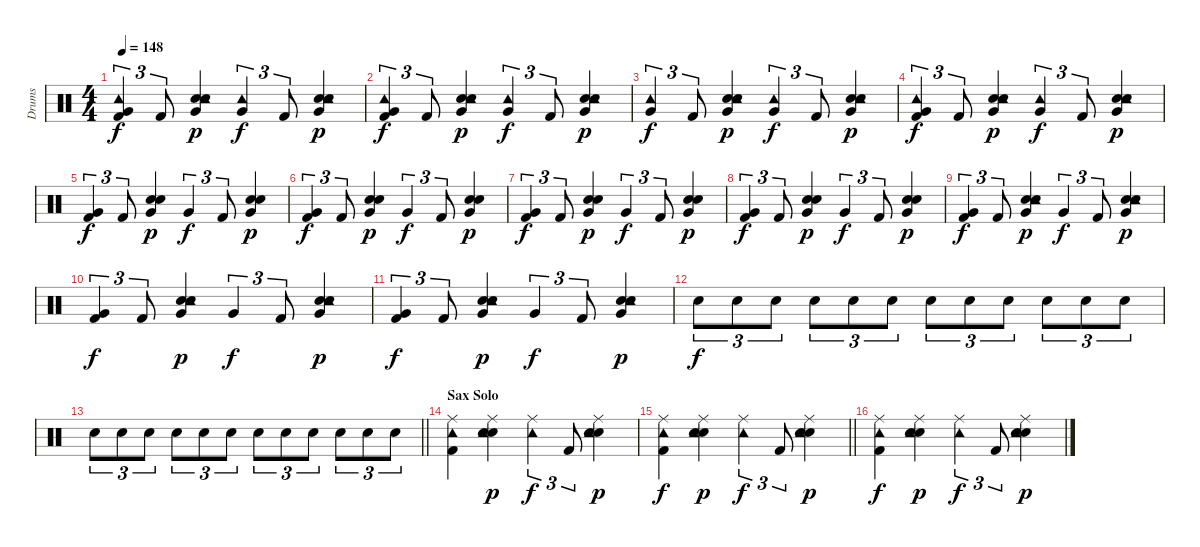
\track ("Drums" "Drums") {instrument percussion}
\staff {score}
\articulation defaults
\ts (4 4)
\tempo 148
\clef neutral
\ks c
("Very Low Tom (hit)" "Tambourine (hit)" "Kick (hit) 2").4{tu (3 2) dy f} "Kick (hit) 2".8{tu (3 2)} ("Very Low Tom (hit)" "Hand Clap (hit)" "Tambourine (hit)" "Electric Snare (hit)").4{dy p} ("Very Low Tom (hit)" "Tambourine (hit)").4{tu (3 2) dy f} "Kick (hit) 2".8{tu (3 2)} ("Very Low Tom (hit)" "Hand Clap (hit)" "Tambourine (hit)" "Electric Snare (hit)").4{dy p} |
("Very Low Tom (hit)" "Tambourine (hit)" "Kick (hit) 2").4{tu (3 2) dy f} "Kick (hit) 2".8{tu (3 2)} ("Very Low Tom (hit)" "Hand Clap (hit)" "Tambourine (hit)" "Electric Snare (hit)").4{dy p} ("Very Low Tom (hit)" "Tambourine (hit)").4{tu (3 2) dy f} "Kick (hit) 2".8{tu (3 2)} ("Very Low Tom (hit)" "Hand Clap (hit)" "Tambourine (hit)" "Electric Snare (hit)").4{dy p} |
("Very Low Tom (hit)" "Tambourine (hit)").4{tu (3 2) dy f} "Kick (hit) 2".8{tu (3 2)} ("Very Low Tom (hit)" "Hand Clap (hit)" "Tambourine (hit)" "Electric Snare (hit)").4{dy p} ("Very Low Tom (hit)" "Tambourine (hit)").4{tu (3 2) dy f} "Kick (hit) 2".8{tu (3 2)} ("Very Low Tom (hit)" "Hand Clap (hit)" "Tambourine (hit)" "Electric Snare (hit)").4{dy p} |
("Very Low Tom (hit)" "Tambourine (hit)" "Kick (hit) 2").4{tu (3 2) dy f} "Kick (hit) 2".8{tu (3 2)} ("Very Low Tom (hit)" "Hand Clap (hit)" "Tambourine (hit)" "Electric Snare (hit)").4{dy p} ("Very Low Tom (hit)" "Tambourine (hit)").4{tu (3 2) dy f} "Kick (hit) 2".8{tu (3 2)} ("Very Low Tom (hit)" "Hand Clap (hit)" "Tambourine (hit)" "Electric Snare (hit)").4{dy p} |
("Very Low Tom (hit)" "Kick (hit) 2").4{tu (3 2) dy f} "Kick (hit) 2".8{tu (3 2)} ("Very Low Tom (hit)" "Hand Clap (hit)" "Electric Snare (hit)").4{dy p} "Very Low Tom (hit)".4{tu (3 2) dy f} "Kick (hit) 2".8{tu (3 2)} ("Very Low Tom (hit)" "Hand Clap (hit)" "Electric Snare (hit)").4{dy p} |
("Very Low Tom (hit)" "Kick (hit) 2").4{tu (3 2) dy f} "Kick (hit) 2".8{tu (3 2)} ("Very Low Tom (hit)" "Hand Clap (hit)" "Electric Snare (hit)").4{dy p} "Very Low Tom (hit)".4{tu (3 2) dy f} "Kick (hit) 2".8{tu (3 2)} ("Very Low Tom (hit)" "Hand Clap (hit)" "Electric Snare (hit)").4{dy p} |
("Very Low Tom (hit)" "Kick (hit) 2").4{tu (3 2) dy f} "Kick (hit) 2".8{tu (3 2)} ("Very Low Tom (hit)" "Hand Clap (hit)" "Electric Snare (hit)").4{dy p} "Very Low Tom (hit)".4{tu (3 2) dy f} "Kick (hit) 2".8{tu (3 2)} ("Very Low Tom (hit)" "Hand Clap (hit)" "Electric Snare (hit)").4{dy p} |
("Very Low Tom (hit)" "Kick (hit) 2").4{tu (3 2) dy f} "Kick (hit) 2".8{tu (3 2)} ("Very Low Tom (hit)" "Hand Clap (hit)" "Electric Snare (hit)").4{dy p} "Very Low Tom (hit)".4{tu (3 2) dy f} "Kick (hit) 2".8{tu (3 2)} ("Very Low Tom (hit)" "Hand Clap (hit)" "Electric Snare (hit)").4{dy p} |
("Very Low Tom (hit)" "Kick (hit) 2").4{tu (3 2) dy f} "Kick (hit) 2".8{tu (3 2)} ("Very Low Tom (hit)" "Hand Clap (hit)" "Tambourine (hit)" "Electric Snare (hit)").4{dy p} "Very Low Tom (hit)".4{tu (3 2) dy f} "Kick (hit) 2".8{tu (3 2)} ("Very Low Tom (hit)" "Hand Clap (hit)" "Tambourine (hit)" "Electric Snare (hit)").4{dy p} |
("Very Low Tom (hit)" "Kick (hit) 2").4{tu (3 2) dy f} "Kick (hit) 2".8{tu (3 2)} ("Very Low Tom (hit)" "Hand Clap (hit)" "Tambourine (hit)" "Electric Snare (hit)").4{dy p} "Very Low Tom (hit)".4{tu (3 2) dy f} "Kick (hit) 2".8{tu (3 2)} ("Very Low Tom (hit)" "Hand Clap (hit)" "Tambourine (hit)" "Electric Snare (hit)").4{dy p} |
("Very Low Tom (hit)" "Kick (hit) 2").4{tu (3 2) dy f} "Kick (hit) 2".8{tu (3 2)} ("Very Low Tom (hit)" "Hand Clap (hit)" "Tambourine (hit)" "Electric Snare (hit)").4{dy p} "Very Low Tom (hit)".4{tu (3 2) dy f} "Kick (hit) 2".8{tu (3 2)} ("Very Low Tom (hit)" "Hand Clap (hit)" "Tambourine (hit)" "Electric Snare (hit)").4{dy p} |
"Snare (hit) 2".8{tu (3 2) dy f} "Snare (hit) 2".8{tu (3 2)} "Snare (hit) 2".8{tu (3 2)} "Snare (hit) 2".8{tu (3 2)} "Snare (hit) 2".8{tu (3 2)} "Snare (hit) 2".8{tu (3 2)} "Snare (hit) 2".8{tu (3 2)} "Snare (hit) 2".8{tu (3 2)} "Snare (hit) 2".8{tu (3 2)} "Snare (hit) 2".8{tu (3 2)} "Snare (hit) 2".8{tu (3 2)} "Snare (hit) 2".8{tu (3 2)} |
\barLineRight lightlight "Snare (hit) 2".8{tu (3 2)} "Snare (hit) 2".8{tu (3 2)} "Snare (hit) 2".8{tu (3 2)} "Snare (hit) 2".8{tu (3 2)} "Snare (hit) 2".8{tu (3 2)} "Snare (hit) 2".8{tu (3 2)} "Snare (hit) 2".8{tu (3 2)} "Snare (hit) 2".8{tu (3 2)} "Snare (hit) 2".8{tu (3 2)} "Snare (hit) 2".8{tu (3 2)} "Snare (hit) 2".8{tu (3 2)} "Snare (hit) 2".8{tu (3 2)}
|
\section ("" "Sax Solo")
("Ride (middle)" "Tambourine (hit)" "Kick (hit) 2").4 ("Ride (middle)" "Hand Clap (hit)" "Tambourine (hit)" "Electric Snare (hit)").4{dy p} ("Ride (middle)" "Tambourine (hit)").4{tu (3 2) dy f} "Kick (hit) 2".8{tu (3 2)} ("Ride (middle)" "Hand Clap (hit)" "Tambourine (hit)" "Electric Snare (hit)").4{dy p} |
\barLineRight lightlight
("Ride (middle)" "Tambourine (hit)" "Kick (hit) 2").4{dy f} ("Ride (middle)" "Hand Clap (hit)" "Tambourine (hit)" "Electric Snare (hit)").4{dy p} ("Ride (middle)" "Tambourine (hit)").4{tu (3 2) dy f} "Kick (hit) 2".8{tu (3 2)} ("Ride (middle)" "Hand Clap (hit)" "Tambourine (hit)" "Electric Snare (hit)").4{dy p} |
("Ride (middle)" "Tambourine (hit)" "Kick (hit) 2").4{dy f} ("Ride (middle)" "Hand Clap (hit)" "Tambourine (hit)" "Electric Snare (hit)").4{dy p} ("Ride (middle)" "Tambourine (hit)").4{tu (3 2) dy f} "Kick (hit) 2".8{tu (3 2)} ("Ride (middle)" "Hand Clap (hit)" "Tambourine (hit)" "Electric Snare (hit)").4{dy p}
